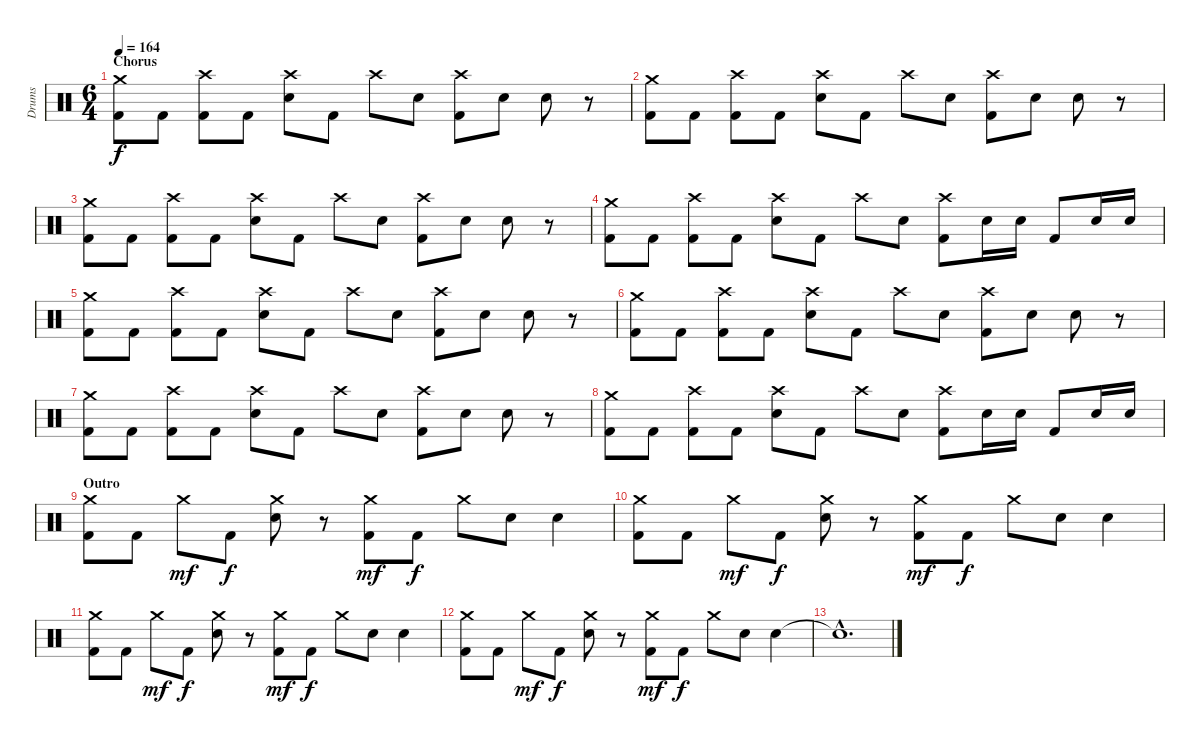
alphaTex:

\track ("Drums" "Drums") {instrument percussion}
\staff {score}
\articulation defaults
\ts (6 4)
\section ("" "Chorus")
\tempo 164
\clef neutral
\ks c
("Crash medium (hit)" "Kick (hit) 2").8{dy f} "Kick (hit) 2".8 ("Crash high (hit)" "Kick (hit) 2").8 "Kick (hit) 2".8 ("Crash high (hit)" "Electric Snare (hit)").8 "Kick (hit) 2".8 "Crash high (hit)".8 "Electric Snare (hit)".8 ("Crash high (hit)" "Kick (hit) 2").8 "Electric Snare (hit)".8 "Electric Snare (hit)".8 r.8 |
("Crash medium (hit)" "Kick (hit) 2").8 "Kick (hit) 2".8 ("Crash high (hit)" "Kick (hit) 2").8 "Kick (hit) 2".8 ("Crash high (hit)" "Electric Snare (hit)").8 "Kick (hit) 2".8 "Crash high (hit)".8 "Electric Snare (hit)".8 ("Crash high (hit)" "Kick (hit) 2").8 "Electric Snare (hit)".8 "Electric Snare (hit)".8 r.8 |
("Crash medium (hit)" "Kick (hit) 2").8 "Kick (hit) 2".8 ("Crash high (hit)" "Kick (hit) 2").8 "Kick (hit) 2".8 ("Crash high (hit)" "Electric Snare (hit)").8 "Kick (hit) 2".8 "Crash high (hit)".8 "Electric Snare (hit)".8 ("Crash high (hit)" "Kick (hit) 2").8 "Electric Snare (hit)".8 "Electric Snare (hit)".8 r.8 |
("Crash medium (hit)" "Kick (hit) 2").8 "Kick (hit) 2".8 ("Crash high (hit)" "Kick (hit) 2").8 "Kick (hit) 2".8 ("Crash high (hit)" "Electric Snare (hit)").8 "Kick (hit) 2".8 "Crash high (hit)".8 "Electric Snare (hit)".8 ("Crash high (hit)" "Kick (hit) 2").8 "Electric Snare (hit)".16 "Electric Snare (hit)".16 "Kick (hit) 2".8 "Electric Snare (hit)".16 "Electric Snare (hit)".16 |
("Crash medium (hit)" "Kick (hit) 2").8 "Kick (hit) 2".8 ("Crash high (hit)" "Kick (hit) 2").8 "Kick (hit) 2".8 ("Crash high (hit)" "Electric Snare (hit)").8 "Kick (hit) 2".8 "Crash high (hit)".8 "Electric Snare (hit)".8 ("Crash high (hit)" "Kick (hit) 2").8 "Electric Snare (hit)".8 "Electric Snare (hit)".8 r.8 |
("Crash medium (hit)" "Kick (hit) 2").8 "Kick (hit) 2".8 ("Crash high (hit)" "Kick (hit) 2").8 "Kick (hit) 2".8 ("Crash high (hit)" "Electric Snare (hit)").8 "Kick (hit) 2".8 "Crash high (hit)".8 "Electric Snare (hit)".8 ("Crash high (hit)" "Kick (hit) 2").8 "Electric Snare (hit)".8 "Electric Snare (hit)".8 r.8 |
("Crash medium (hit)" "Kick (hit) 2").8 "Kick (hit) 2".8 ("Crash high (hit)" "Kick (hit) 2").8 "Kick (hit) 2".8 ("Crash high (hit)" "Electric Snare (hit)").8 "Kick (hit) 2".8 "Crash high (hit)".8 "Electric Snare (hit)".8 ("Crash high (hit)" "Kick (hit) 2").8 "Electric Snare (hit)".8 "Electric Snare (hit)".8 r.8 |
("Crash medium (hit)" "Kick (hit) 2").8 "Kick (hit) 2".8 ("Crash high (hit)" "Kick (hit) 2").8 "Kick (hit) 2".8 ("Crash high (hit)" "Electric Snare (hit)").8 "Kick (hit) 2".8 "Crash high (hit)".8 "Electric Snare (hit)".8 ("Crash high (hit)" "Kick (hit) 2").8 "Electric Snare (hit)".16 "Electric Snare (hit)".16 "Kick (hit) 2".8 "Electric Snare (hit)".16 "Electric Snare (hit)".16 |
\section ("" "Outro")
("Crash medium (hit)" "Kick (hit) 2").8 "Kick (hit) 2".8 "Crash medium (hit)".8{dy mf} "Kick (hit) 2".8{dy f} ("Crash medium (hit)" "Electric Snare (hit)").8 r.8 ("Crash medium (hit)" "Kick (hit) 2").8{dy mf} "Kick (hit) 2".8{dy f} "Crash medium (hit)".8 "Electric Snare (hit)".8 "Electric Snare (hit)".4 |
("Crash medium (hit)" "Kick (hit) 2").8 "Kick (hit) 2".8 "Crash medium (hit)".8{dy mf} "Kick (hit) 2".8{dy f} ("Crash medium (hit)" "Electric Snare (hit)").8 r.8 ("Crash medium (hit)" "Kick (hit) 2").8{dy mf} "Kick (hit) 2".8{dy f} "Crash medium (hit)".8 "Electric Snare (hit)".8 "Electric Snare (hit)".4 |
("Crash medium (hit)" "Kick (hit) 2").8 "Kick (hit) 2".8 "Crash medium (hit)".8{dy mf} "Kick (hit) 2".8{dy f} ("Crash medium (hit)" "Electric Snare (hit)").8 r.8 ("Crash medium (hit)" "Kick (hit) 2").8{dy mf} "Kick (hit) 2".8{dy f} "Crash medium (hit)".8 "Electric Snare (hit)".8 "Electric Snare (hit)".4 |
("Crash medium (hit)" "Kick (hit) 2").8 "Kick (hit) 2".8 "Crash medium (hit)".8{dy mf} "Kick (hit) 2".8{dy f} ("Crash medium (hit)" "Electric Snare (hit)").8 r.8 ("Crash medium (hit)" "Kick (hit) 2").8{dy mf} "Kick (hit) 2".8{dy f} "Crash medium (hit)".8 "Electric Snare (hit)".8 "Electric Snare (hit)".4 |
"Snare (hit)"{hac t}.1{d}
